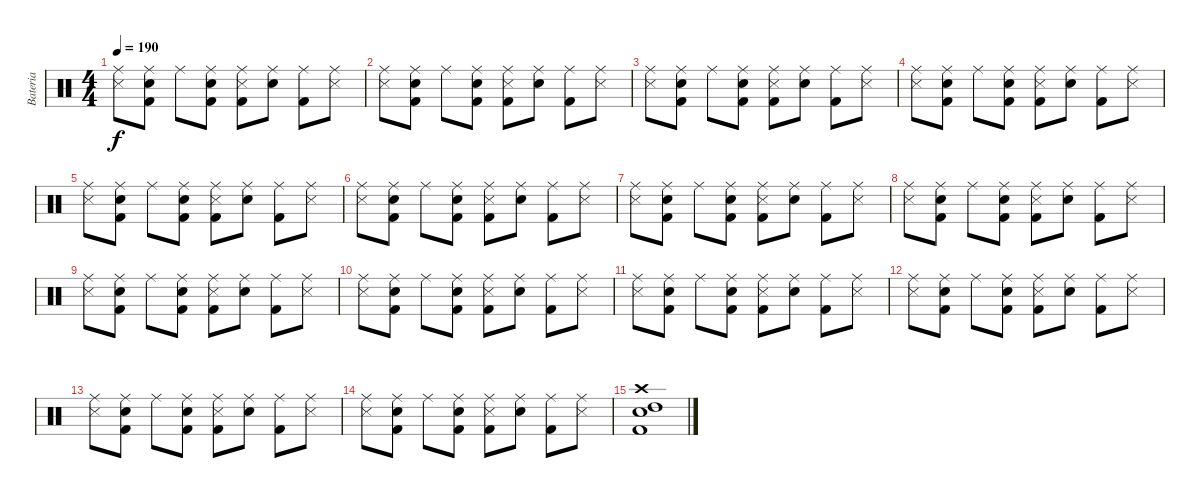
\track ("Bateria" "Bateria") {instrument percussion}
\staff {score}
\articulation defaults
\ts (4 4)
\tempo 190
\clef neutral
\ks c
("Ride (middle)" "Snare (side stick) 3").8{dy f} ("Ride (middle)" "Metronome (bell)" "Kick (hit) 2").8 "Ride (middle)".8 ("Ride (middle)" "Electric Snare (hit)" "Kick (hit) 2").8 ("Ride (middle)" "Snare (side stick) 3" "Kick (hit) 2").8 ("Ride (middle)" "Metronome (bell)").8 ("Ride (middle)" "Kick (hit) 2").8 ("Ride (middle)" "Snare (side stick) 3").8 |
("Ride (middle)" "Snare (side stick) 3").8 ("Ride (middle)" "Metronome (bell)" "Kick (hit) 2").8 "Ride (middle)".8 ("Ride (middle)" "Electric Snare (hit)" "Kick (hit) 2").8 ("Ride (middle)" "Snare (side stick) 3" "Kick (hit) 2").8 ("Ride (middle)" "Metronome (bell)").8 ("Ride (middle)" "Kick (hit) 2").8 ("Ride (middle)" "Snare (side stick) 3").8 |
("Ride (middle)" "Snare (side stick) 3").8 ("Ride (middle)" "Metronome (bell)" "Kick (hit) 2").8 "Ride (middle)".8 ("Ride (middle)" "Electric Snare (hit)" "Kick (hit) 2").8 ("Ride (middle)" "Snare (side stick) 3" "Kick (hit) 2").8 ("Ride (middle)" "Metronome (bell)").8 ("Ride (middle)" "Kick (hit) 2").8 ("Ride (middle)" "Snare (side stick) 3").8 |
("Ride (middle)" "Snare (side stick) 3").8 ("Ride (middle)" "Metronome (bell)" "Kick (hit) 2").8 "Ride (middle)".8 ("Ride (middle)" "Electric Snare (hit)" "Kick (hit) 2").8 ("Ride (middle)" "Snare (side stick) 3" "Kick (hit) 2").8 ("Ride (middle)" "Metronome (bell)").8 ("Ride (middle)" "Kick (hit) 2").8 ("Ride (middle)" "Snare (side stick) 3").8 |
("Ride (middle)" "Snare (side stick) 3").8 ("Ride (middle)" "Metronome (bell)" "Kick (hit) 2").8 "Ride (middle)".8 ("Ride (middle)" "Electric Snare (hit)" "Kick (hit) 2").8 ("Ride (middle)" "Snare (side stick) 3" "Kick (hit) 2").8 ("Ride (middle)" "Metronome (bell)").8 ("Ride (middle)" "Kick (hit) 2").8 ("Ride (middle)" "Snare (side stick) 3").8 |
("Ride (middle)" "Snare (side stick) 3").8 ("Ride (middle)" "Metronome (bell)" "Kick (hit) 2").8 "Ride (middle)".8 ("Ride (middle)" "Electric Snare (hit)" "Kick (hit) 2").8 ("Ride (middle)" "Snare (side stick) 3" "Kick (hit) 2").8 ("Ride (middle)" "Metronome (bell)").8 ("Ride (middle)" "Kick (hit) 2").8 ("Ride (middle)" "Snare (side stick) 3").8 |
("Ride (middle)" "Snare (side stick) 3").8 ("Ride (middle)" "Metronome (bell)" "Kick (hit) 2").8 "Ride (middle)".8 ("Ride (middle)" "Electric Snare (hit)" "Kick (hit) 2").8 ("Ride (middle)" "Snare (side stick) 3" "Kick (hit) 2").8 ("Ride (middle)" "Metronome (bell)").8 ("Ride (middle)" "Kick (hit) 2").8 ("Ride (middle)" "Snare (side stick) 3").8 |
("Ride (middle)" "Snare (side stick) 3").8 ("Ride (middle)" "Metronome (bell)" "Kick (hit) 2").8 "Ride (middle)".8 ("Ride (middle)" "Electric Snare (hit)" "Kick (hit) 2").8 ("Ride (middle)" "Snare (side stick) 3" "Kick (hit) 2").8 ("Ride (middle)" "Metronome (bell)").8 ("Ride (middle)" "Kick (hit) 2").8 ("Ride (middle)" "Snare (side stick) 3").8 |
("Ride (middle)" "Snare (side stick) 3").8 ("Ride (middle)" "Metronome (bell)" "Kick (hit) 2").8 "Ride (middle)".8 ("Ride (middle)" "Electric Snare (hit)" "Kick (hit) 2").8 ("Ride (middle)" "Snare (side stick) 3" "Kick (hit) 2").8 ("Ride (middle)" "Metronome (bell)").8 ("Ride (middle)" "Kick (hit) 2").8 ("Ride (middle)" "Snare (side stick) 3").8 |
("Ride (middle)" "Snare (side stick) 3").8 ("Ride (middle)" "Metronome (bell)" "Kick (hit) 2").8 "Ride (middle)".8 ("Ride (middle)" "Electric Snare (hit)" "Kick (hit) 2").8 ("Ride (middle)" "Snare (side stick) 3" "Kick (hit) 2").8 ("Ride (middle)" "Metronome (bell)").8 ("Ride (middle)" "Kick (hit) 2").8 ("Ride (middle)" "Snare (side stick) 3").8 |
("Ride (middle)" "Snare (side stick) 3").8 ("Ride (middle)" "Metronome (bell)" "Kick (hit) 2").8 "Ride (middle)".8 ("Ride (middle)" "Electric Snare (hit)" "Kick (hit) 2").8 ("Ride (middle)" "Snare (side stick) 3" "Kick (hit) 2").8 ("Ride (middle)" "Metronome (bell)").8 ("Ride (middle)" "Kick (hit) 2").8 ("Ride (middle)" "Snare (side stick) 3").8 |
("Ride (middle)" "Snare (side stick) 3").8 ("Ride (middle)" "Metronome (bell)" "Kick (hit) 2").8 "Ride (middle)".8 ("Ride (middle)" "Electric Snare (hit)" "Kick (hit) 2").8 ("Ride (middle)" "Snare (side stick) 3" "Kick (hit) 2").8 ("Ride (middle)" "Metronome (bell)").8 ("Ride (middle)" "Kick (hit) 2").8 ("Ride (middle)" "Snare (side stick) 3").8 |
("Ride (middle)" "Snare (side stick) 3").8 ("Ride (middle)" "Metronome (bell)" "Kick (hit) 2").8 "Ride (middle)".8 ("Ride (middle)" "Electric Snare (hit)" "Kick (hit) 2").8 ("Ride (middle)" "Snare (side stick) 3" "Kick (hit) 2").8 ("Ride (middle)" "Metronome (bell)").8 ("Ride (middle)" "Kick (hit) 2").8 ("Ride (middle)" "Snare (side stick) 3").8 |
("Ride (middle)" "Snare (side stick) 3").8 ("Ride (middle)" "Metronome (bell)" "Kick (hit) 2").8 "Ride (middle)".8 ("Ride (middle)" "Electric Snare (hit)" "Kick (hit) 2").8 ("Ride (middle)" "Snare (side stick) 3" "Kick (hit) 2").8 ("Ride (middle)" "Metronome (bell)").8 ("Ride (middle)" "Kick (hit) 2").8 ("Ride (middle)" "Snare (side stick) 3").8 |
("Kick (hit) 2" "Crash high (hit)" "Electric Snare (hit)" "High Tom (hit)").1
